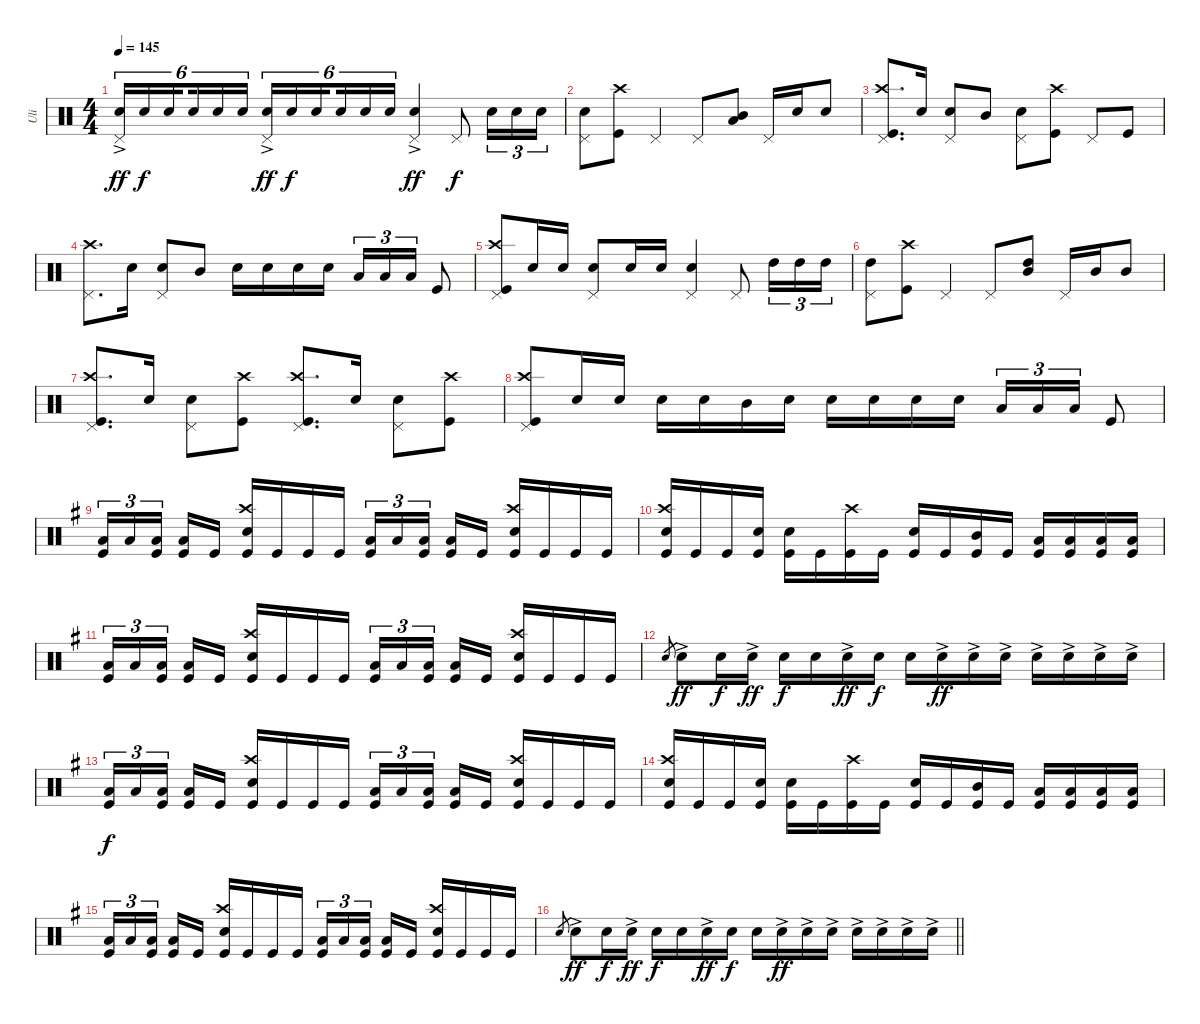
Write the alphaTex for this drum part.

\track ("Uli" "Uli") {instrument percussion}
\staff {score}
\articulation defaults
\ts (4 4)
\tempo 145
\clef neutral
\ks aminor
("Snare (hit) 2"{ac} "Pedal Hi-Hat (hit)").16{tu (6 4) dy ff} "Snare (hit) 2".16{tu (6 4) dy f} "Snare (hit) 2".16{tu (6 4) beam splitsecondary} "Snare (hit) 2".16{tu (6 4)} "Snare (hit) 2".16{tu (6 4)} "Snare (hit) 2".16{tu (6 4)} ("Snare (hit) 2"{ac} "Pedal Hi-Hat (hit)").16{tu (6 4) dy ff} "Snare (hit) 2".16{tu (6 4) dy f} "Snare (hit) 2".16{tu (6 4) beam splitsecondary} "Snare (hit) 2".16{tu (6 4)} "Snare (hit) 2".16{tu (6 4)} "Snare (hit) 2".16{tu (6 4)} ("Snare (hit) 2"{ac} "Pedal Hi-Hat (hit)").4{dy ff} "Pedal Hi-Hat (hit)".8{dy f} "Snare (hit) 2".16{tu (3 2)} "Snare (hit) 2".16{tu (3 2)} "Snare (hit) 2".16{tu (3 2)} |
("Snare (hit) 2" "Pedal Hi-Hat (hit)").8 ("Crash high (hit)" "Kick (hit)").8 "Pedal Hi-Hat (hit)".4 "Pedal Hi-Hat (hit)".8 ("Mid Tom (hit)" "Low Tom (hit)").8 "Pedal Hi-Hat (hit)".16 "Snare (hit) 2".16 "Snare (hit) 2".8 |
("Crash high (hit)" "Pedal Hi-Hat (hit)" "Kick (hit)").8{d} "Snare (hit) 2".16 ("Snare (hit) 2" "Pedal Hi-Hat (hit)").8 "Mid Tom (hit)".8 ("Snare (hit) 2" "Pedal Hi-Hat (hit)").8 ("Crash high (hit)" "Kick (hit)").8 "Pedal Hi-Hat (hit)".8 "Kick (hit)".8 |
("Crash high (hit)" "Pedal Hi-Hat (hit)").8{d} "Snare (hit) 2".16 ("Snare (hit) 2" "Pedal Hi-Hat (hit)").8 "Mid Tom (hit)".8 "Snare (hit) 2".16 "Snare (hit) 2".16 "Snare (hit) 2".16 "Snare (hit) 2".16 "Low Tom (hit)".16{tu (3 2)} "Low Tom (hit)".16{tu (3 2)} "Low Tom (hit)".16{tu (3 2)} "Kick (hit)".8 |
("Crash high (hit)" "Pedal Hi-Hat (hit)" "Kick (hit)").8 "Snare (hit) 2".16 "Snare (hit) 2".16 ("Snare (hit) 2" "Pedal Hi-Hat (hit)").8 "Snare (hit) 2".16 "Snare (hit) 2".16 ("Snare (hit) 2" "Pedal Hi-Hat (hit)").4 "Pedal Hi-Hat (hit)".8 "High Tom (hit)".16{tu (3 2)} "High Tom (hit)".16{tu (3 2)} "High Tom (hit)".16{tu (3 2)} |
("High Tom (hit)" "Pedal Hi-Hat (hit)").8 ("Crash high (hit)" "Kick (hit)").8 "Pedal Hi-Hat (hit)".4 "Pedal Hi-Hat (hit)".8 ("High Tom (hit)" "Mid Tom (hit)").8 "Pedal Hi-Hat (hit)".16 "Mid Tom (hit)".16 "Mid Tom (hit)".8 |
("Crash high (hit)" "Pedal Hi-Hat (hit)" "Kick (hit)").8{d} "Snare (hit) 2".16 ("Snare (hit) 2" "Pedal Hi-Hat (hit)").8 ("Crash high (hit)" "Kick (hit)").8 ("Crash high (hit)" "Pedal Hi-Hat (hit)" "Kick (hit)").8{d} "Snare (hit) 2".16 ("Snare (hit) 2" "Pedal Hi-Hat (hit)").8 ("Crash high (hit)" "Kick (hit)").8 |
("Crash high (hit)" "Pedal Hi-Hat (hit)" "Kick (hit)").8 "Snare (hit) 2".16 "Snare (hit) 2".16 "Snare (hit) 2".16 "Snare (hit) 2".16 "Mid Tom (hit)".16 "Snare (hit) 2".16 "Snare (hit) 2".16 "Snare (hit) 2".16 "Snare (hit) 2".16 "Snare (hit) 2".16 "Low Tom (hit)".16{tu (3 2)} "Low Tom (hit)".16{tu (3 2)} "Low Tom (hit)".16{tu (3 2)} "Kick (hit)".8 |
\ks eminor
("Low Tom (hit)" "Kick (hit)").16{tu (3 2)} "Low Tom (hit)".16{tu (3 2)} ("Low Tom (hit)" "Kick (hit)").16{tu (3 2) beam splitsecondary} ("Low Tom (hit)" "Kick (hit)").16 "Kick (hit)".16 ("Crash high (hit)" "Snare (hit) 2" "Kick (hit)").16 "Kick (hit)".16 "Kick (hit)".16 "Kick (hit)".16 ("Low Tom (hit)" "Kick (hit)").16{tu (3 2)} "Low Tom (hit)".16{tu (3 2)} ("Low Tom (hit)" "Kick (hit)").16{tu (3 2) beam splitsecondary} ("Low Tom (hit)" "Kick (hit)").16 "Kick (hit)".16 ("Crash high (hit)" "Snare (hit) 2" "Kick (hit)").16 "Kick (hit)".16 "Kick (hit)".16 "Kick (hit)".16 |
("Crash high (hit)" "Snare (hit) 2" "Kick (hit)").16 "Kick (hit)".16 "Kick (hit)".16 ("Snare (hit) 2" "Kick (hit)").16 ("Snare (hit) 2" "Kick (hit)").16 "Kick (hit)".16 ("Crash high (hit)" "Kick (hit)").16 "Kick (hit)".16 ("Snare (hit) 2" "Kick (hit)").16 "Kick (hit)".16 ("Mid Tom (hit)" "Kick (hit)").16 "Kick (hit)".16 ("Low Tom (hit)" "Kick (hit)").16 ("Low Tom (hit)" "Kick (hit)").16 ("Low Tom (hit)" "Kick (hit)").16 ("Low Tom (hit)" "Kick (hit)").16 |
("Low Tom (hit)" "Kick (hit)").16{tu (3 2)} "Low Tom (hit)".16{tu (3 2)} ("Low Tom (hit)" "Kick (hit)").16{tu (3 2) beam splitsecondary} ("Low Tom (hit)" "Kick (hit)").16 "Kick (hit)".16 ("Crash high (hit)" "Snare (hit) 2" "Kick (hit)").16 "Kick (hit)".16 "Kick (hit)".16 "Kick (hit)".16 ("Low Tom (hit)" "Kick (hit)").16{tu (3 2)} "Low Tom (hit)".16{tu (3 2)} ("Low Tom (hit)" "Kick (hit)").16{tu (3 2) beam splitsecondary} ("Low Tom (hit)" "Kick (hit)").16 "Kick (hit)".16 ("Crash high (hit)" "Snare (hit) 2" "Kick (hit)").16 "Kick (hit)".16 "Kick (hit)".16 "Kick (hit)".16 |
"Snare (hit) 2".8{gr} "Snare (hit) 2"{ac}.8{dy ff} "Snare (hit) 2".16{dy f} "Snare (hit) 2"{ac}.16{dy ff} "Snare (hit) 2".16{dy f} "Snare (hit) 2".16 "Snare (hit) 2"{ac}.16{dy ff} "Snare (hit) 2".16{dy f} "Snare (hit) 2".16 "Snare (hit) 2"{ac}.16{dy ff} "Snare (hit) 2"{ac}.16 "Snare (hit) 2"{ac}.16 "Snare (hit) 2"{ac}.16 "Snare (hit) 2"{ac}.16 "Snare (hit) 2"{ac}.16 "Snare (hit) 2"{ac}.16 |
("Low Tom (hit)" "Kick (hit)").16{tu (3 2) dy f} "Low Tom (hit)".16{tu (3 2)} ("Low Tom (hit)" "Kick (hit)").16{tu (3 2) beam splitsecondary} ("Low Tom (hit)" "Kick (hit)").16 "Kick (hit)".16 ("Crash high (hit)" "Snare (hit) 2" "Kick (hit)").16 "Kick (hit)".16 "Kick (hit)".16 "Kick (hit)".16 ("Low Tom (hit)" "Kick (hit)").16{tu (3 2)} "Low Tom (hit)".16{tu (3 2)} ("Low Tom (hit)" "Kick (hit)").16{tu (3 2) beam splitsecondary} ("Low Tom (hit)" "Kick (hit)").16 "Kick (hit)".16 ("Crash high (hit)" "Snare (hit) 2" "Kick (hit)").16 "Kick (hit)".16 "Kick (hit)".16 "Kick (hit)".16 |
("Crash high (hit)" "Snare (hit) 2" "Kick (hit)").16 "Kick (hit)".16 "Kick (hit)".16 ("Snare (hit) 2" "Kick (hit)").16 ("Snare (hit) 2" "Kick (hit)").16 "Kick (hit)".16 ("Crash high (hit)" "Kick (hit)").16 "Kick (hit)".16 ("Snare (hit) 2" "Kick (hit)").16 "Kick (hit)".16 ("Mid Tom (hit)" "Kick (hit)").16 "Kick (hit)".16 ("Low Tom (hit)" "Kick (hit)").16 ("Low Tom (hit)" "Kick (hit)").16 ("Low Tom (hit)" "Kick (hit)").16 ("Low Tom (hit)" "Kick (hit)").16 |
("Low Tom (hit)" "Kick (hit)").16{tu (3 2)} "Low Tom (hit)".16{tu (3 2)} ("Low Tom (hit)" "Kick (hit)").16{tu (3 2) beam splitsecondary} ("Low Tom (hit)" "Kick (hit)").16 "Kick (hit)".16 ("Crash high (hit)" "Snare (hit) 2" "Kick (hit)").16 "Kick (hit)".16 "Kick (hit)".16 "Kick (hit)".16 ("Low Tom (hit)" "Kick (hit)").16{tu (3 2)} "Low Tom (hit)".16{tu (3 2)} ("Low Tom (hit)" "Kick (hit)").16{tu (3 2) beam splitsecondary} ("Low Tom (hit)" "Kick (hit)").16 "Kick (hit)".16 ("Crash high (hit)" "Snare (hit) 2" "Kick (hit)").16 "Kick (hit)".16 "Kick (hit)".16 "Kick (hit)".16 |
\barLineRight lightlight "Snare (hit) 2".8{gr} "Snare (hit) 2"{ac}.8{dy ff} "Snare (hit) 2".16{dy f} "Snare (hit) 2"{ac}.16{dy ff} "Snare (hit) 2".16{dy f} "Snare (hit) 2".16 "Snare (hit) 2"{ac}.16{dy ff} "Snare (hit) 2".16{dy f} "Snare (hit) 2".16 "Snare (hit) 2"{ac}.16{dy ff} "Snare (hit) 2"{ac}.16 "Snare (hit) 2"{ac}.16 "Snare (hit) 2"{ac}.16 "Snare (hit) 2"{ac}.16 "Snare (hit) 2"{ac}.16 "Snare (hit) 2"{ac}.16
